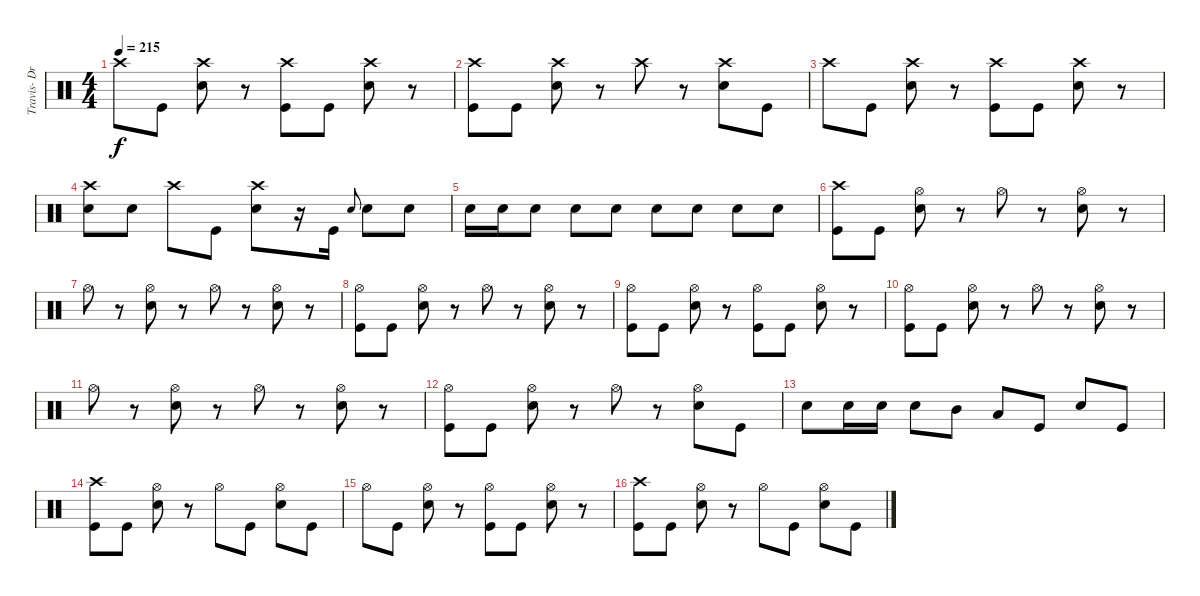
\track ("Travis- Drums" "Travis- Dr") {instrument percussion}
\staff {score}
\articulation defaults
\ts (4 4)
\tempo 215
\clef neutral
\ks c "Crash high (hit)".8{dy f} "Kick (hit)".8
("Crash high (hit)" "Electric Snare (hit)").8 r.8 ("Crash high (hit)" "Kick (hit)").8 "Kick (hit)".8 ("Crash high (hit)" "Electric Snare (hit)").8 r.8 |
("Crash high (hit)" "Kick (hit)").8 "Kick (hit)".8 ("Crash high (hit)" "Electric Snare (hit)").8 r.8 "Crash high (hit)".8 r.8 ("Crash high (hit)" "Electric Snare (hit)").8 "Kick (hit)".8 |
"Crash high (hit)".8 "Kick (hit)".8 ("Crash high (hit)" "Electric Snare (hit)").8 r.8 ("Crash high (hit)" "Kick (hit)").8 "Kick (hit)".8 ("Crash high (hit)" "Electric Snare (hit)").8 r.8 |
("Crash high (hit)" "Electric Snare (hit)").8 "Electric Snare (hit)".8 "Crash high (hit)".8 "Kick (hit)".8 ("Crash high (hit)" "Electric Snare (hit)").8 r.16 "Kick (hit)".16 "Electric Snare (hit)".8{gr onbeat} "Electric Snare (hit)".8 "Electric Snare (hit)".8 |
"Electric Snare (hit)".16 "Electric Snare (hit)".16 "Electric Snare (hit)".8 "Electric Snare (hit)".8 "Electric Snare (hit)".8 "Electric Snare (hit)".8 "Electric Snare (hit)".8 "Electric Snare (hit)".8 "Electric Snare (hit)".8 |
("Kick (hit)" "Crash high (hit)").8 "Kick (hit)".8 ("Electric Snare (hit)" "Hi-Hat (open)").8 r.8 "Hi-Hat (open)".8 r.8 ("Electric Snare (hit)" "Hi-Hat (open)").8 r.8 |
"Hi-Hat (open)".8 r.8 ("Electric Snare (hit)" "Hi-Hat (open)").8 r.8 "Hi-Hat (open)".8 r.8 ("Electric Snare (hit)" "Hi-Hat (open)").8 r.8 |
("Kick (hit)" "Hi-Hat (open)").8 "Kick (hit)".8 ("Electric Snare (hit)" "Hi-Hat (open)").8 r.8 "Hi-Hat (open)".8 r.8 ("Electric Snare (hit)" "Hi-Hat (open)").8 r.8 |
("Kick (hit)" "Hi-Hat (open)").8 "Kick (hit)".8 ("Electric Snare (hit)" "Hi-Hat (open)").8 r.8 ("Kick (hit)" "Hi-Hat (open)").8 "Kick (hit)".8 ("Electric Snare (hit)" "Hi-Hat (open)").8 r.8 |
("Kick (hit)" "Hi-Hat (open)").8 "Kick (hit)".8 ("Electric Snare (hit)" "Hi-Hat (open)").8 r.8 "Hi-Hat (open)".8 r.8 ("Electric Snare (hit)" "Hi-Hat (open)").8 r.8 |
"Hi-Hat (open)".8 r.8 ("Electric Snare (hit)" "Hi-Hat (open)").8 r.8 "Hi-Hat (open)".8 r.8 ("Electric Snare (hit)" "Hi-Hat (open)").8 r.8 |
("Kick (hit)" "Hi-Hat (open)").8 "Kick (hit)".8 ("Electric Snare (hit)" "Hi-Hat (open)").8 r.8 "Hi-Hat (open)".8 r.8 ("Electric Snare (hit)" "Hi-Hat (open)").8 "Kick (hit)".8 |
"Electric Snare (hit)".8 "Electric Snare (hit)".16 "Electric Snare (hit)".16 "Electric Snare (hit)".8 "Mid Tom (hit)".8 "Low Tom (hit)".8 "Kick (hit)".8 "Electric Snare (hit)".8 "Kick (hit)".8 |
("Crash high (hit)" "Kick (hit)").8 "Kick (hit)".8 ("Hi-Hat (open)" "Electric Snare (hit)").8 r.8 "Hi-Hat (open)".8 "Kick (hit)".8 ("Hi-Hat (open)" "Electric Snare (hit)").8 "Kick (hit)".8 |
"Hi-Hat (open)".8 "Kick (hit)".8 ("Hi-Hat (open)" "Electric Snare (hit)").8 r.8 ("Hi-Hat (open)" "Kick (hit)").8 "Kick (hit)".8 ("Hi-Hat (open)" "Electric Snare (hit)").8 r.8 |
("Crash high (hit)" "Kick (hit)").8 "Kick (hit)".8 ("Hi-Hat (open)" "Electric Snare (hit)").8 r.8 "Hi-Hat (open)".8 "Kick (hit)".8 ("Hi-Hat (open)" "Electric Snare (hit)").8 "Kick (hit)".8
